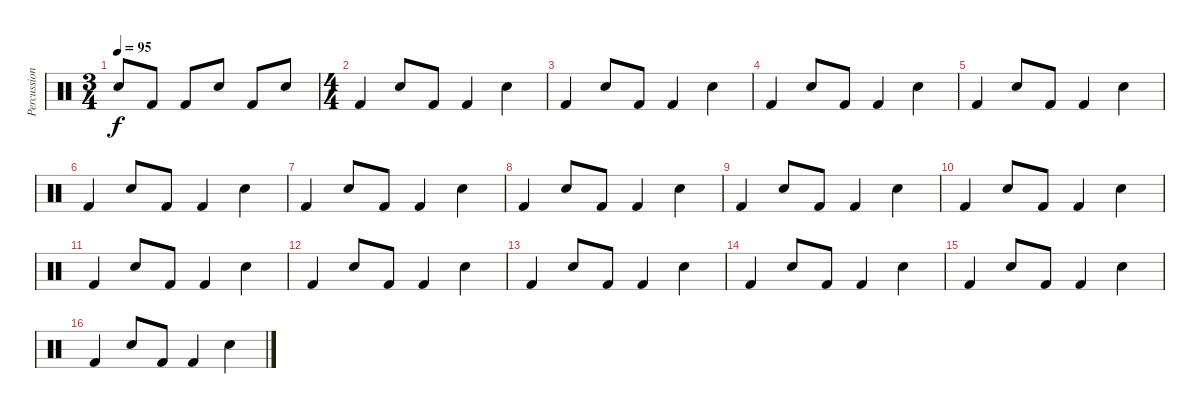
\track ("Percussions" "Percussion") {instrument percussion}
\staff {score}
\articulation defaults
\ts (3 4)
\tempo 95
\clef neutral
\ks c "Snare (hit) 2".8{dy f} "Kick (hit) 2".8 "Kick (hit) 2".8 "Snare (hit) 2".8 "Kick (hit) 2".8 "Snare (hit) 2".8
|
\ts (4 4)
"Kick (hit) 2".4 "Snare (hit) 2".8 "Kick (hit) 2".8 "Kick (hit) 2".4 "Snare (hit) 2".4 |
"Kick (hit) 2".4 "Snare (hit) 2".8 "Kick (hit) 2".8 "Kick (hit) 2".4 "Snare (hit) 2".4 |
"Kick (hit) 2".4 "Snare (hit) 2".8 "Kick (hit) 2".8 "Kick (hit) 2".4 "Snare (hit) 2".4 |
"Kick (hit) 2".4 "Snare (hit) 2".8 "Kick (hit) 2".8 "Kick (hit) 2".4 "Snare (hit) 2".4 |
"Kick (hit) 2".4 "Snare (hit) 2".8 "Kick (hit) 2".8 "Kick (hit) 2".4 "Snare (hit) 2".4 |
"Kick (hit) 2".4 "Snare (hit) 2".8 "Kick (hit) 2".8 "Kick (hit) 2".4 "Snare (hit) 2".4 |
"Kick (hit) 2".4 "Snare (hit) 2".8 "Kick (hit) 2".8 "Kick (hit) 2".4 "Snare (hit) 2".4 |
"Kick (hit) 2".4 "Snare (hit) 2".8 "Kick (hit) 2".8 "Kick (hit) 2".4 "Snare (hit) 2".4 |
"Kick (hit) 2".4 "Snare (hit) 2".8 "Kick (hit) 2".8 "Kick (hit) 2".4 "Snare (hit) 2".4 |
"Kick (hit) 2".4 "Snare (hit) 2".8 "Kick (hit) 2".8 "Kick (hit) 2".4 "Snare (hit) 2".4 |
"Kick (hit) 2".4 "Snare (hit) 2".8 "Kick (hit) 2".8 "Kick (hit) 2".4 "Snare (hit) 2".4 |
"Kick (hit) 2".4 "Snare (hit) 2".8 "Kick (hit) 2".8 "Kick (hit) 2".4 "Snare (hit) 2".4 |
"Kick (hit) 2".4 "Snare (hit) 2".8 "Kick (hit) 2".8 "Kick (hit) 2".4 "Snare (hit) 2".4 |
"Kick (hit) 2".4 "Snare (hit) 2".8 "Kick (hit) 2".8 "Kick (hit) 2".4 "Snare (hit) 2".4 |
"Kick (hit) 2".4 "Snare (hit) 2".8 "Kick (hit) 2".8 "Kick (hit) 2".4 "Snare (hit) 2".4
